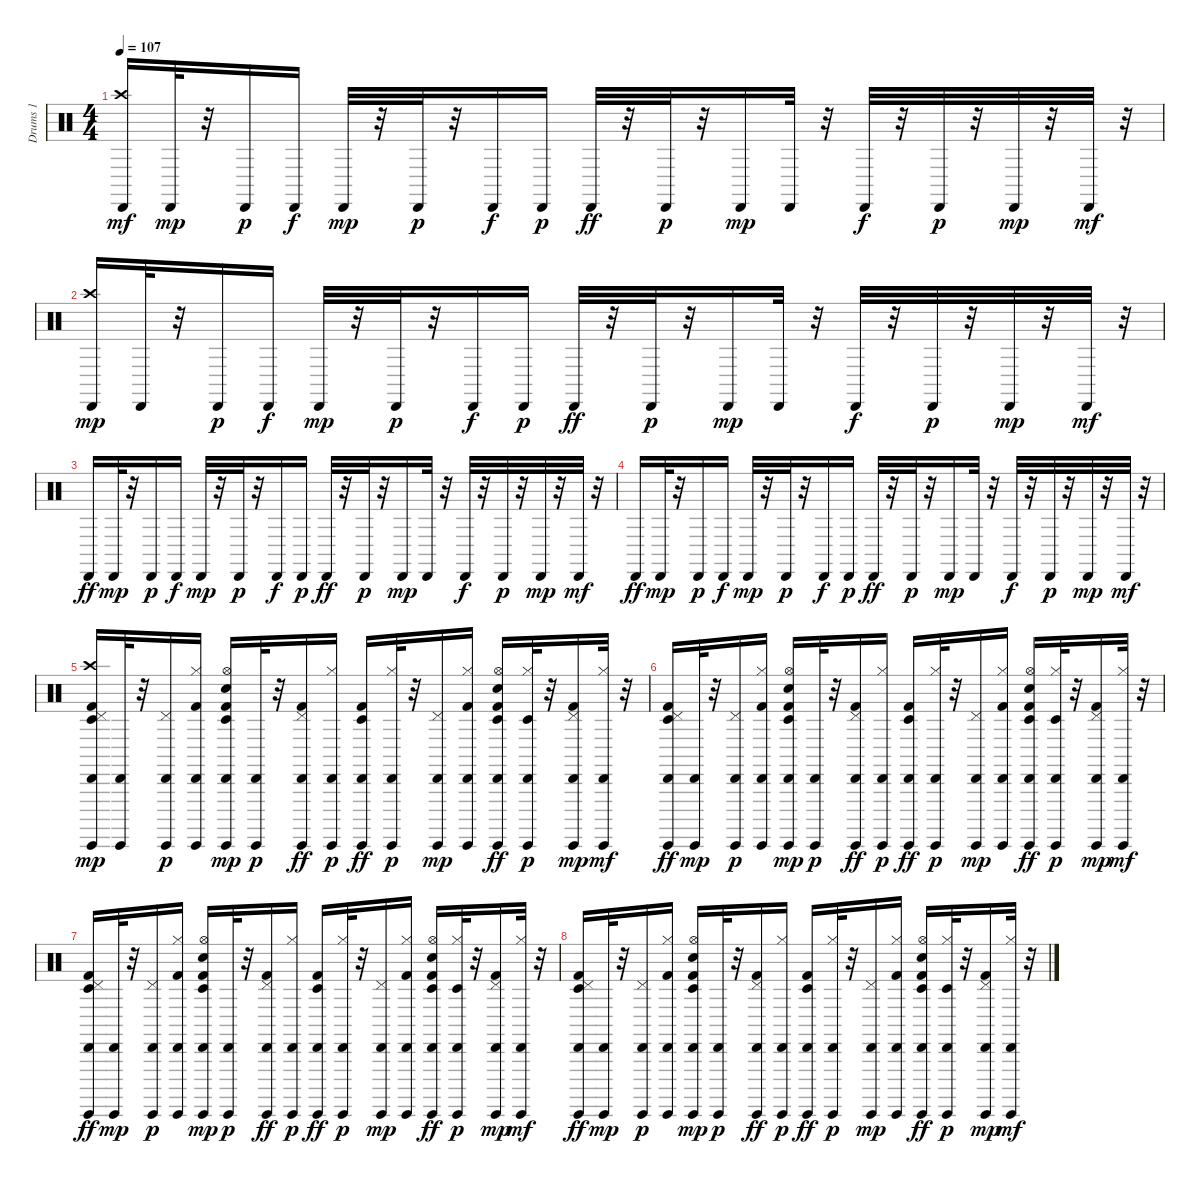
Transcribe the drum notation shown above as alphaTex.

\track ("Drums 1" "Drums 1") {instrument percussion}
\staff {score}
\articulation defaults
\ts (4 4)
\tempo 107
\clef neutral
\ks c
("Cabasa (hit)" "Crash high (hit)").16{dy mf} "Cabasa (hit)".32{dy mp} r.32 "Cabasa (hit)".16{dy p} "Cabasa (hit)".16{dy f} "Cabasa (hit)".32{dy mp} r.32 "Cabasa (hit)".32{dy p} r.32 "Cabasa (hit)".16{dy f} "Cabasa (hit)".16{dy p} "Cabasa (hit)".32{dy ff} r.32 "Cabasa (hit)".32{dy p} r.32 "Cabasa (hit)".16{dy mp} "Cabasa (hit)".32 r.32 "Cabasa (hit)".32{dy f} r.32 "Cabasa (hit)".32{dy p} r.32 "Cabasa (hit)".32{dy mp} r.32 "Cabasa (hit)".32{dy mf} r.32 |
("Cabasa (hit)" "Crash high (hit)").16{dy mp} "Cabasa (hit)".32 r.32 "Cabasa (hit)".16{dy p} "Cabasa (hit)".16{dy f} "Cabasa (hit)".32{dy mp} r.32 "Cabasa (hit)".32{dy p} r.32 "Cabasa (hit)".16{dy f} "Cabasa (hit)".16{dy p} "Cabasa (hit)".32{dy ff} r.32 "Cabasa (hit)".32{dy p} r.32 "Cabasa (hit)".16{dy mp} "Cabasa (hit)".32 r.32 "Cabasa (hit)".32{dy f} r.32 "Cabasa (hit)".32{dy p} r.32 "Cabasa (hit)".32{dy mp} r.32 "Cabasa (hit)".32{dy mf} r.32 |
"Cabasa (hit)".16{dy ff} "Cabasa (hit)".32{dy mp} r.32 "Cabasa (hit)".16{dy p} "Cabasa (hit)".16{dy f} "Cabasa (hit)".32{dy mp} r.32 "Cabasa (hit)".32{dy p} r.32 "Cabasa (hit)".16{dy f} "Cabasa (hit)".16{dy p} "Cabasa (hit)".32{dy ff} r.32 "Cabasa (hit)".32{dy p} r.32 "Cabasa (hit)".16{dy mp} "Cabasa (hit)".32 r.32 "Cabasa (hit)".32{dy f} r.32 "Cabasa (hit)".32{dy p} r.32 "Cabasa (hit)".32{dy mp} r.32 "Cabasa (hit)".32{dy mf} r.32 |
"Cabasa (hit)".16{dy ff} "Cabasa (hit)".32{dy mp} r.32 "Cabasa (hit)".16{dy p} "Cabasa (hit)".16{dy f} "Cabasa (hit)".32{dy mp} r.32 "Cabasa (hit)".32{dy p} r.32 "Cabasa (hit)".16{dy f} "Cabasa (hit)".16{dy p} "Cabasa (hit)".32{dy ff} r.32 "Cabasa (hit)".32{dy p} r.32 "Cabasa (hit)".16{dy mp} "Cabasa (hit)".32 r.32 "Cabasa (hit)".32{dy f} r.32 "Cabasa (hit)".32{dy p} r.32 "Cabasa (hit)".32{dy mp} r.32 "Cabasa (hit)".32{dy mf} r.32 |
("Timbale low (hit)" "Kick (hit) 2" "Pedal Hi-Hat (hit)" "Guiro (hit)" "Cabasa (hit)" "Crash high (hit)").16{dy mp} ("Guiro (hit)" "Cabasa (hit)").32 r.32 ("Pedal Hi-Hat (hit)" "Guiro (hit)" "Cabasa (hit)").16{dy p} ("Kick (hit) 2" "Hi-Hat (closed)" "Guiro (hit)" "Cabasa (hit)").16 ("Timbale low (hit)" "Kick (hit) 2" "Snare (hit) 2" "Hi-Hat (open)" "Guiro (hit)" "Cabasa (hit)").16{dy mp} ("Guiro (hit)" "Cabasa (hit)").32{dy p} r.32 ("Kick (hit) 2" "Pedal Hi-Hat (hit)" "Guiro (hit)" "Cabasa (hit)").16{dy ff} ("Hi-Hat (closed)" "Guiro (hit)" "Cabasa (hit)").16{dy p} ("Timbale low (hit)" "Kick (hit) 2" "Guiro (hit)" "Cabasa (hit)").16{dy ff} ("Hi-Hat (closed)" "Guiro (hit)" "Cabasa (hit)").32{dy p} r.32 ("Pedal Hi-Hat (hit)" "Guiro (hit)" "Cabasa (hit)").16{dy mp} ("Kick (hit) 2" "Hi-Hat (closed)" "Guiro (hit)" "Cabasa (hit)").16 ("Timbale low (hit)" "Kick (hit) 2" "Snare (hit) 2" "Hi-Hat (open)" "Guiro (hit)" "Cabasa (hit)").16{dy ff} ("Timbale low (hit)" "Hi-Hat (closed)" "Guiro (hit)" "Cabasa (hit)").32{dy p} r.32 ("Kick (hit) 2" "Pedal Hi-Hat (hit)" "Guiro (hit)" "Cabasa (hit)").16{dy mp} ("Hi-Hat (closed)" "Guiro (hit)" "Cabasa (hit)").32{dy mf} r.32 |
("Timbale low (hit)" "Kick (hit) 2" "Pedal Hi-Hat (hit)" "Guiro (hit)" "Cabasa (hit)").16{dy ff} ("Guiro (hit)" "Cabasa (hit)").32{dy mp} r.32 ("Pedal Hi-Hat (hit)" "Guiro (hit)" "Cabasa (hit)").16{dy p} ("Kick (hit) 2" "Hi-Hat (closed)" "Guiro (hit)" "Cabasa (hit)").16 ("Timbale low (hit)" "Kick (hit) 2" "Snare (hit) 2" "Hi-Hat (open)" "Guiro (hit)" "Cabasa (hit)").16{dy mp} ("Guiro (hit)" "Cabasa (hit)").32{dy p} r.32 ("Kick (hit) 2" "Pedal Hi-Hat (hit)" "Guiro (hit)" "Cabasa (hit)").16{dy ff} ("Hi-Hat (closed)" "Guiro (hit)" "Cabasa (hit)").16{dy p} ("Timbale low (hit)" "Kick (hit) 2" "Guiro (hit)" "Cabasa (hit)").16{dy ff} ("Hi-Hat (closed)" "Guiro (hit)" "Cabasa (hit)").32{dy p} r.32 ("Pedal Hi-Hat (hit)" "Guiro (hit)" "Cabasa (hit)").16{dy mp} ("Kick (hit) 2" "Hi-Hat (closed)" "Guiro (hit)" "Cabasa (hit)").16 ("Timbale low (hit)" "Kick (hit) 2" "Snare (hit) 2" "Hi-Hat (open)" "Guiro (hit)" "Cabasa (hit)").16{dy ff} ("Timbale low (hit)" "Hi-Hat (closed)" "Guiro (hit)" "Cabasa (hit)").32{dy p} r.32 ("Kick (hit) 2" "Pedal Hi-Hat (hit)" "Guiro (hit)" "Cabasa (hit)").16{dy mp} ("Hi-Hat (closed)" "Guiro (hit)" "Cabasa (hit)").32{dy mf} r.32 |
("Timbale low (hit)" "Kick (hit) 2" "Pedal Hi-Hat (hit)" "Guiro (hit)" "Cabasa (hit)").16{dy ff} ("Guiro (hit)" "Cabasa (hit)").32{dy mp} r.32 ("Pedal Hi-Hat (hit)" "Guiro (hit)" "Cabasa (hit)").16{dy p} ("Kick (hit) 2" "Hi-Hat (closed)" "Guiro (hit)" "Cabasa (hit)").16 ("Timbale low (hit)" "Kick (hit) 2" "Snare (hit) 2" "Hi-Hat (open)" "Guiro (hit)" "Cabasa (hit)").16{dy mp} ("Guiro (hit)" "Cabasa (hit)").32{dy p} r.32 ("Kick (hit) 2" "Pedal Hi-Hat (hit)" "Guiro (hit)" "Cabasa (hit)").16{dy ff} ("Hi-Hat (closed)" "Guiro (hit)" "Cabasa (hit)").16{dy p} ("Timbale low (hit)" "Kick (hit) 2" "Guiro (hit)" "Cabasa (hit)").16{dy ff} ("Hi-Hat (closed)" "Guiro (hit)" "Cabasa (hit)").32{dy p} r.32 ("Pedal Hi-Hat (hit)" "Guiro (hit)" "Cabasa (hit)").16{dy mp} ("Kick (hit) 2" "Hi-Hat (closed)" "Guiro (hit)" "Cabasa (hit)").16 ("Timbale low (hit)" "Kick (hit) 2" "Snare (hit) 2" "Hi-Hat (open)" "Guiro (hit)" "Cabasa (hit)").16{dy ff} ("Timbale low (hit)" "Hi-Hat (closed)" "Guiro (hit)" "Cabasa (hit)").32{dy p} r.32 ("Kick (hit) 2" "Pedal Hi-Hat (hit)" "Guiro (hit)" "Cabasa (hit)").16{dy mp} ("Hi-Hat (closed)" "Guiro (hit)" "Cabasa (hit)").32{dy mf} r.32 |
("Timbale low (hit)" "Kick (hit) 2" "Pedal Hi-Hat (hit)" "Guiro (hit)" "Cabasa (hit)").16{dy ff} ("Guiro (hit)" "Cabasa (hit)").32{dy mp} r.32 ("Pedal Hi-Hat (hit)" "Guiro (hit)" "Cabasa (hit)").16{dy p} ("Kick (hit) 2" "Hi-Hat (closed)" "Guiro (hit)" "Cabasa (hit)").16 ("Timbale low (hit)" "Kick (hit) 2" "Snare (hit) 2" "Hi-Hat (open)" "Guiro (hit)" "Cabasa (hit)").16{dy mp} ("Guiro (hit)" "Cabasa (hit)").32{dy p} r.32 ("Kick (hit) 2" "Pedal Hi-Hat (hit)" "Guiro (hit)" "Cabasa (hit)").16{dy ff} ("Hi-Hat (closed)" "Guiro (hit)" "Cabasa (hit)").16{dy p} ("Timbale low (hit)" "Kick (hit) 2" "Guiro (hit)" "Cabasa (hit)").16{dy ff} ("Hi-Hat (closed)" "Guiro (hit)" "Cabasa (hit)").32{dy p} r.32 ("Pedal Hi-Hat (hit)" "Guiro (hit)" "Cabasa (hit)").16{dy mp} ("Kick (hit) 2" "Hi-Hat (closed)" "Guiro (hit)" "Cabasa (hit)").16 ("Timbale low (hit)" "Kick (hit) 2" "Snare (hit) 2" "Hi-Hat (open)" "Guiro (hit)" "Cabasa (hit)").16{dy ff} ("Timbale low (hit)" "Hi-Hat (closed)" "Guiro (hit)" "Cabasa (hit)").32{dy p} r.32 ("Kick (hit) 2" "Pedal Hi-Hat (hit)" "Guiro (hit)" "Cabasa (hit)").16{dy mp} ("Hi-Hat (closed)" "Guiro (hit)" "Cabasa (hit)").32{dy mf} r.32
